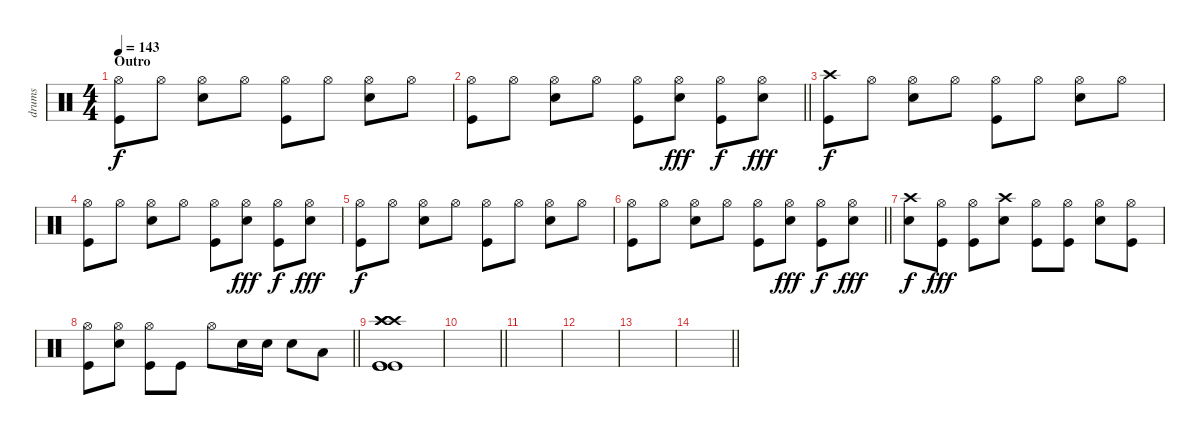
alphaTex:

\track ("drums" "drums") {instrument percussion}
\staff {score}
\articulation defaults
\ts (4 4)
\section ("" "Outro")
\tempo 143
\clef neutral
\ks c
("Hi-Hat (open)" "Kick (hit)").8{dy f} "Hi-Hat (open)".8 ("Hi-Hat (open)" "Snare (hit) 2").8 "Hi-Hat (open)".8 ("Hi-Hat (open)" "Kick (hit)").8 "Hi-Hat (open)".8 ("Hi-Hat (open)" "Snare (hit) 2").8 "Hi-Hat (open)".8 |
\barLineRight lightlight
("Hi-Hat (open)" "Kick (hit)").8 "Hi-Hat (open)".8 ("Hi-Hat (open)" "Snare (hit) 2").8 "Hi-Hat (open)".8 ("Hi-Hat (open)" "Kick (hit)").8 ("Hi-Hat (open)" "Snare (hit) 2").8{dy fff} ("Hi-Hat (open)" "Kick (hit)").8{dy f} ("Hi-Hat (open)" "Snare (hit) 2").8{dy fff} |
("Crash high (hit)" "Kick (hit)").8{dy f} "Hi-Hat (open)".8 ("Hi-Hat (open)" "Snare (hit) 2").8 "Hi-Hat (open)".8 ("Hi-Hat (open)" "Kick (hit)").8 "Hi-Hat (open)".8 ("Hi-Hat (open)" "Snare (hit) 2").8 "Hi-Hat (open)".8 |
("Hi-Hat (open)" "Kick (hit)").8 "Hi-Hat (open)".8 ("Hi-Hat (open)" "Snare (hit) 2").8 "Hi-Hat (open)".8 ("Hi-Hat (open)" "Kick (hit)").8 ("Hi-Hat (open)" "Snare (hit) 2").8{dy fff} ("Hi-Hat (open)" "Kick (hit)").8{dy f} ("Hi-Hat (open)" "Snare (hit) 2").8{dy fff} |
("Hi-Hat (open)" "Kick (hit)").8{dy f} "Hi-Hat (open)".8 ("Hi-Hat (open)" "Snare (hit) 2").8 "Hi-Hat (open)".8 ("Hi-Hat (open)" "Kick (hit)").8 "Hi-Hat (open)".8 ("Hi-Hat (open)" "Snare (hit) 2").8 "Hi-Hat (open)".8 |
\barLineRight lightlight
("Hi-Hat (open)" "Kick (hit)").8 "Hi-Hat (open)".8 ("Hi-Hat (open)" "Snare (hit) 2").8 "Hi-Hat (open)".8 ("Hi-Hat (open)" "Kick (hit)").8 ("Hi-Hat (open)" "Snare (hit) 2").8{dy fff} ("Hi-Hat (open)" "Kick (hit)").8{dy f} ("Hi-Hat (open)" "Snare (hit) 2").8{dy fff} |
("Crash high (hit)" "Snare (hit) 2").8{dy f} ("Kick (hit)" "Hi-Hat (open)").8{dy fff} ("Kick (hit)" "Hi-Hat (open)").8 ("Snare (hit) 2" "Crash high (hit)").8 ("Kick (hit)" "Hi-Hat (open)").8 ("Kick (hit)" "Hi-Hat (open)").8 ("Snare (hit) 2" "Hi-Hat (open)").8 ("Kick (hit)" "Hi-Hat (open)").8 |
\barLineRight lightlight
("Kick (hit)" "Hi-Hat (open)").8 ("Snare (hit) 2" "Hi-Hat (open)").8 ("Kick (hit)" "Hi-Hat (open)").8 "Kick (hit)".8 "Hi-Hat (open)".8 "Snare (hit) 2".16 "Snare (hit) 2".16 "Snare (hit) 2".8 "Low Tom (hit)".8 |
("Crash high (hit)" "Kick (hit)" "Crash high (hit)" "Kick (hit)" "Crash high (hit)" "Kick (hit)").1 |
\barLineRight lightlight
|
|
|
|
\barLineRight lightlight
